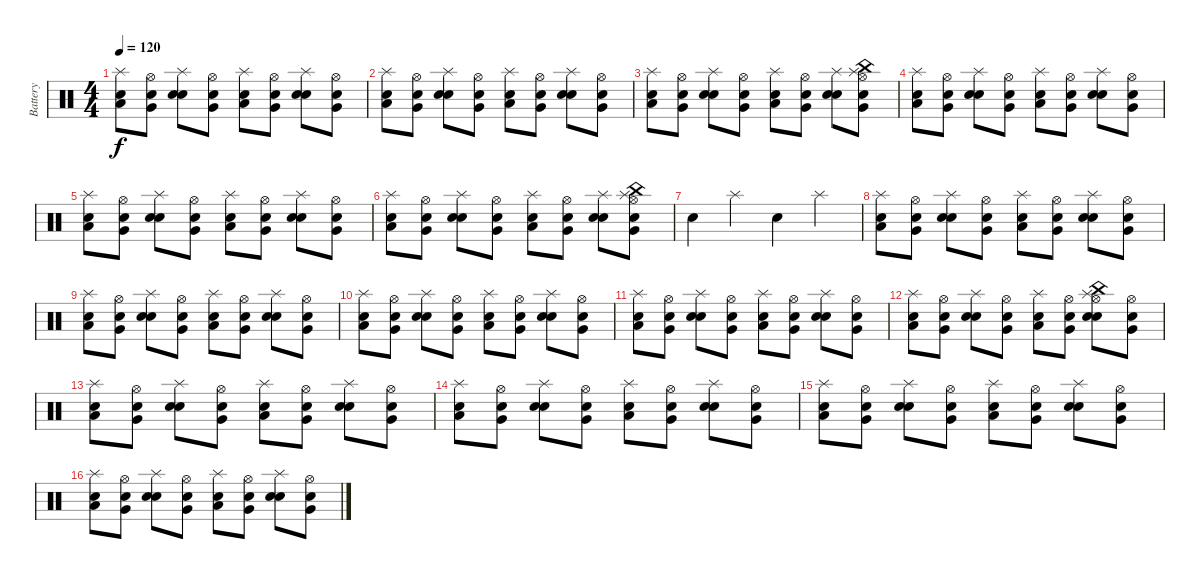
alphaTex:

\track ("Battery" "Battery") {instrument percussion}
\staff {score}
\articulation defaults
\ts (4 4)
\tempo 120
\clef neutral
\ks c
("Snare (hit) 2" "Low Floor Tom (hit)" "Splash (hit)").8{dy f} ("Snare (hit) 2" "Very Low Tom (hit)" "Hi-Hat (open)").8 ("Snare (hit) 2" "Electric Snare (hit)" "Splash (hit)").8 ("Snare (hit) 2" "Very Low Tom (hit)" "Hi-Hat (open)").8 ("Snare (hit) 2" "Low Floor Tom (hit)" "Splash (hit)").8 ("Snare (hit) 2" "Very Low Tom (hit)" "Hi-Hat (open)").8 ("Snare (hit) 2" "Electric Snare (hit)" "Splash (hit)").8 ("Snare (hit) 2" "Very Low Tom (hit)" "Hi-Hat (open)").8 |
("Snare (hit) 2" "Low Floor Tom (hit)" "Splash (hit)").8 ("Snare (hit) 2" "Very Low Tom (hit)" "Hi-Hat (open)").8 ("Snare (hit) 2" "Electric Snare (hit)" "Splash (hit)").8 ("Snare (hit) 2" "Very Low Tom (hit)" "Hi-Hat (open)").8 ("Snare (hit) 2" "Low Floor Tom (hit)" "Splash (hit)").8 ("Snare (hit) 2" "Very Low Tom (hit)" "Hi-Hat (open)").8 ("Snare (hit) 2" "Electric Snare (hit)" "Splash (hit)").8 ("Snare (hit) 2" "Very Low Tom (hit)" "Hi-Hat (open)").8 |
("Snare (hit) 2" "Low Floor Tom (hit)" "Splash (hit)").8 ("Snare (hit) 2" "Very Low Tom (hit)" "Hi-Hat (open)").8 ("Snare (hit) 2" "Electric Snare (hit)" "Splash (hit)").8 ("Snare (hit) 2" "Very Low Tom (hit)" "Hi-Hat (open)").8 ("Snare (hit) 2" "Low Floor Tom (hit)" "Splash (hit)").8 ("Snare (hit) 2" "Very Low Tom (hit)" "Hi-Hat (open)").8 ("Snare (hit) 2" "Electric Snare (hit)" "Splash (hit)").8 ("Snare (hit) 2" "Very Low Tom (hit)" "Splash (hit)" "Hi-Hat (open)" "China (hit)").8 |
("Snare (hit) 2" "Low Floor Tom (hit)" "Splash (hit)").8 ("Snare (hit) 2" "Very Low Tom (hit)" "Hi-Hat (open)").8 ("Snare (hit) 2" "Electric Snare (hit)" "Splash (hit)").8 ("Snare (hit) 2" "Very Low Tom (hit)" "Hi-Hat (open)").8 ("Snare (hit) 2" "Low Floor Tom (hit)" "Splash (hit)").8 ("Snare (hit) 2" "Very Low Tom (hit)" "Hi-Hat (open)").8 ("Snare (hit) 2" "Electric Snare (hit)" "Splash (hit)").8 ("Snare (hit) 2" "Very Low Tom (hit)" "Hi-Hat (open)").8 |
("Snare (hit) 2" "Low Floor Tom (hit)" "Splash (hit)").8 ("Snare (hit) 2" "Very Low Tom (hit)" "Hi-Hat (open)").8 ("Snare (hit) 2" "Electric Snare (hit)" "Splash (hit)").8 ("Snare (hit) 2" "Very Low Tom (hit)" "Hi-Hat (open)").8 ("Snare (hit) 2" "Low Floor Tom (hit)" "Splash (hit)").8 ("Snare (hit) 2" "Very Low Tom (hit)" "Hi-Hat (open)").8 ("Snare (hit) 2" "Electric Snare (hit)" "Splash (hit)").8 ("Snare (hit) 2" "Very Low Tom (hit)" "Hi-Hat (open)").8 |
("Snare (hit) 2" "Low Floor Tom (hit)" "Splash (hit)").8 ("Snare (hit) 2" "Very Low Tom (hit)" "Hi-Hat (open)").8 ("Snare (hit) 2" "Electric Snare (hit)" "Splash (hit)").8 ("Snare (hit) 2" "Very Low Tom (hit)" "Hi-Hat (open)").8 ("Snare (hit) 2" "Low Floor Tom (hit)" "Splash (hit)").8 ("Snare (hit) 2" "Very Low Tom (hit)" "Hi-Hat (open)").8 ("Snare (hit) 2" "Electric Snare (hit)" "Splash (hit)").8 ("Snare (hit) 2" "Very Low Tom (hit)" "Splash (hit)" "Hi-Hat (open)" "China (hit)").8 |
"Snare (hit)".4 "Splash (hit)".4 "Snare (hit)".4 "Splash (hit)".4 |
("Snare (hit) 2" "Low Floor Tom (hit)" "Splash (hit)").8 ("Snare (hit) 2" "Very Low Tom (hit)" "Hi-Hat (open)").8 ("Snare (hit) 2" "Electric Snare (hit)" "Splash (hit)").8 ("Snare (hit) 2" "Very Low Tom (hit)" "Hi-Hat (open)").8 ("Snare (hit) 2" "Low Floor Tom (hit)" "Splash (hit)").8 ("Snare (hit) 2" "Very Low Tom (hit)" "Hi-Hat (open)").8 ("Snare (hit) 2" "Electric Snare (hit)" "Splash (hit)").8 ("Snare (hit) 2" "Very Low Tom (hit)" "Hi-Hat (open)").8 |
("Snare (hit) 2" "Low Floor Tom (hit)" "Splash (hit)").8 ("Snare (hit) 2" "Very Low Tom (hit)" "Hi-Hat (open)").8 ("Snare (hit) 2" "Electric Snare (hit)" "Splash (hit)").8 ("Snare (hit) 2" "Very Low Tom (hit)" "Hi-Hat (open)").8 ("Snare (hit) 2" "Low Floor Tom (hit)" "Splash (hit)").8 ("Snare (hit) 2" "Very Low Tom (hit)" "Hi-Hat (open)").8 ("Snare (hit) 2" "Electric Snare (hit)" "Splash (hit)").8 ("Snare (hit) 2" "Very Low Tom (hit)" "Hi-Hat (open)").8 |
("Snare (hit) 2" "Low Floor Tom (hit)" "Splash (hit)").8 ("Snare (hit) 2" "Very Low Tom (hit)" "Hi-Hat (open)").8 ("Snare (hit) 2" "Electric Snare (hit)" "Splash (hit)").8 ("Snare (hit) 2" "Very Low Tom (hit)" "Hi-Hat (open)").8 ("Snare (hit) 2" "Low Floor Tom (hit)" "Splash (hit)").8 ("Snare (hit) 2" "Very Low Tom (hit)" "Hi-Hat (open)").8 ("Snare (hit) 2" "Electric Snare (hit)" "Splash (hit)").8 ("Snare (hit) 2" "Very Low Tom (hit)" "Hi-Hat (open)").8 |
("Snare (hit) 2" "Low Floor Tom (hit)" "Splash (hit)").8 ("Snare (hit) 2" "Very Low Tom (hit)" "Hi-Hat (open)").8 ("Snare (hit) 2" "Electric Snare (hit)" "Splash (hit)").8 ("Snare (hit) 2" "Very Low Tom (hit)" "Hi-Hat (open)").8 ("Snare (hit) 2" "Low Floor Tom (hit)" "Splash (hit)").8 ("Snare (hit) 2" "Very Low Tom (hit)" "Hi-Hat (open)").8 ("Snare (hit) 2" "Electric Snare (hit)" "Splash (hit)").8 ("Snare (hit) 2" "Very Low Tom (hit)" "Hi-Hat (open)").8 |
("Snare (hit) 2" "Low Floor Tom (hit)" "Splash (hit)").8 ("Snare (hit) 2" "Very Low Tom (hit)" "Hi-Hat (open)").8 ("Snare (hit) 2" "Electric Snare (hit)" "Splash (hit)").8 ("Snare (hit) 2" "Very Low Tom (hit)" "Hi-Hat (open)").8 ("Snare (hit) 2" "Low Floor Tom (hit)" "Splash (hit)").8 ("Snare (hit) 2" "Very Low Tom (hit)" "Hi-Hat (open)").8 ("Snare (hit) 2" "Electric Snare (hit)" "Splash (hit)" "Hi-Hat (open)" "China (hit)").8 ("Snare (hit) 2" "Very Low Tom (hit)" "Hi-Hat (open)").8 |
("Snare (hit) 2" "Low Floor Tom (hit)" "Splash (hit)").8 ("Snare (hit) 2" "Very Low Tom (hit)" "Hi-Hat (open)").8 ("Snare (hit) 2" "Electric Snare (hit)" "Splash (hit)").8 ("Snare (hit) 2" "Very Low Tom (hit)" "Hi-Hat (open)").8 ("Snare (hit) 2" "Low Floor Tom (hit)" "Splash (hit)").8 ("Snare (hit) 2" "Very Low Tom (hit)" "Hi-Hat (open)").8 ("Snare (hit) 2" "Electric Snare (hit)" "Splash (hit)").8 ("Snare (hit) 2" "Very Low Tom (hit)" "Hi-Hat (open)").8 |
("Snare (hit) 2" "Low Floor Tom (hit)" "Splash (hit)").8 ("Snare (hit) 2" "Very Low Tom (hit)" "Hi-Hat (open)").8 ("Snare (hit) 2" "Electric Snare (hit)" "Splash (hit)").8 ("Snare (hit) 2" "Very Low Tom (hit)" "Hi-Hat (open)").8 ("Snare (hit) 2" "Low Floor Tom (hit)" "Splash (hit)").8 ("Snare (hit) 2" "Very Low Tom (hit)" "Hi-Hat (open)").8 ("Snare (hit) 2" "Electric Snare (hit)" "Splash (hit)").8 ("Snare (hit) 2" "Very Low Tom (hit)" "Hi-Hat (open)").8 |
("Snare (hit) 2" "Low Floor Tom (hit)" "Splash (hit)").8 ("Snare (hit) 2" "Very Low Tom (hit)" "Hi-Hat (open)").8 ("Snare (hit) 2" "Electric Snare (hit)" "Splash (hit)").8 ("Snare (hit) 2" "Very Low Tom (hit)" "Hi-Hat (open)").8 ("Snare (hit) 2" "Low Floor Tom (hit)" "Splash (hit)").8 ("Snare (hit) 2" "Very Low Tom (hit)" "Hi-Hat (open)").8 ("Snare (hit) 2" "Electric Snare (hit)" "Splash (hit)").8 ("Snare (hit) 2" "Very Low Tom (hit)" "Hi-Hat (open)").8 |
("Snare (hit) 2" "Low Floor Tom (hit)" "Splash (hit)").8 ("Snare (hit) 2" "Very Low Tom (hit)" "Hi-Hat (open)").8 ("Snare (hit) 2" "Electric Snare (hit)" "Splash (hit)").8 ("Snare (hit) 2" "Very Low Tom (hit)" "Hi-Hat (open)").8 ("Snare (hit) 2" "Low Floor Tom (hit)" "Splash (hit)").8 ("Snare (hit) 2" "Very Low Tom (hit)" "Hi-Hat (open)").8 ("Snare (hit) 2" "Electric Snare (hit)" "Splash (hit)").8 ("Snare (hit) 2" "Very Low Tom (hit)" "Hi-Hat (open)").8
